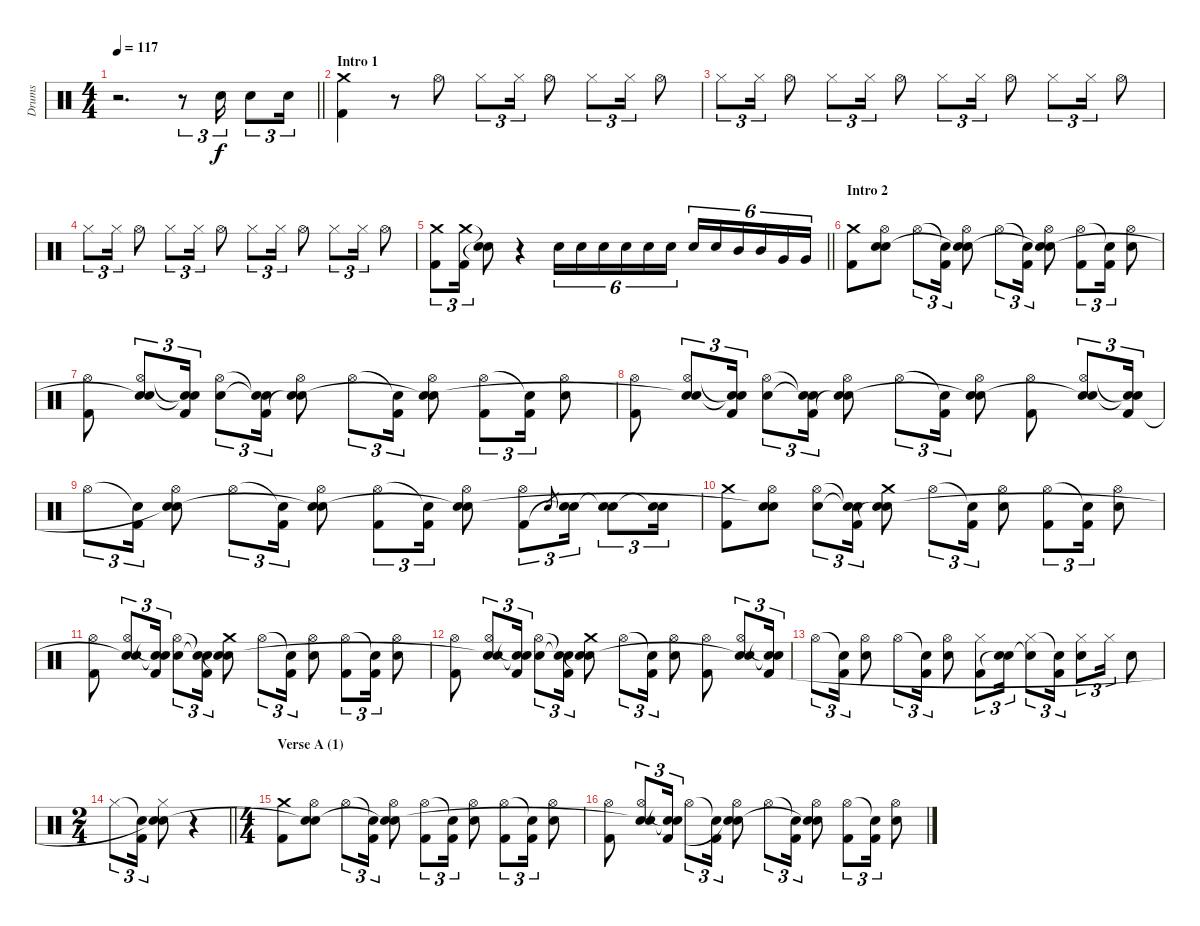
\track ("Drums" "Drums") {instrument percussion}
\staff {score}
\articulation defaults
\ts (4 4)
\tempo 117
\clef neutral
\barLineRight lightlight
\ks aminor
r.2{d dy f} r.8{tu (3 2)} "Electric Snare (hit)".16{tu (3 2)} "Electric Snare (hit)".8{tu (3 2)} "Electric Snare (hit)".16{tu (3 2)} |
\section ("" "Intro 1")
("Crash medium (hit)" "Kick (hit) 2").4 r.8 "Hi-Hat (open)".8 "Hi-Hat (closed)".8{tu (3 2)} "Hi-Hat (closed)".16{tu (3 2)} "Hi-Hat (open)".8 "Hi-Hat (closed)".8{tu (3 2)} "Hi-Hat (closed)".16{tu (3 2)} "Hi-Hat (open)".8 |
"Hi-Hat (closed)".8{tu (3 2)} "Hi-Hat (closed)".16{tu (3 2)} "Hi-Hat (open)".8 "Hi-Hat (closed)".8{tu (3 2)} "Hi-Hat (closed)".16{tu (3 2)} "Hi-Hat (open)".8 "Hi-Hat (closed)".8{tu (3 2)} "Hi-Hat (closed)".16{tu (3 2)} "Hi-Hat (open)".8 "Hi-Hat (closed)".8{tu (3 2)} "Hi-Hat (closed)".16{tu (3 2)} "Hi-Hat (open)".8 |
"Hi-Hat (closed)".8{tu (3 2)} "Hi-Hat (closed)".16{tu (3 2)} "Hi-Hat (open)".8 "Hi-Hat (closed)".8{tu (3 2)} "Hi-Hat (closed)".16{tu (3 2)} "Hi-Hat (open)".8 "Hi-Hat (closed)".8{tu (3 2)} "Hi-Hat (closed)".16{tu (3 2)} "Hi-Hat (open)".8 "Hi-Hat (closed)".8{tu (3 2)} "Hi-Hat (closed)".16{tu (3 2)} "Hi-Hat (open)".8 |
\barLineRight lightlight
("Crash medium (hit)" "Kick (hit) 2").8{tu (3 2)} ("Crash medium (hit)" "Kick (hit) 2").16{tu (3 2)} ("Snare (hit)"{t} "Snare (hit)"{t}).8 r.4 "Electric Snare (hit)".16{tu (6 4)} "Electric Snare (hit)".16{tu (6 4)} "Electric Snare (hit)".16{tu (6 4)} "Electric Snare (hit)".16{tu (6 4)} "Electric Snare (hit)".16{tu (6 4)} "Electric Snare (hit)".16{tu (6 4)} "Electric Snare (hit)".16{tu (6 4)} "Electric Snare (hit)".16{tu (6 4)} "Mid Tom (hit)".16{tu (6 4)} "Mid Tom (hit)".16{tu (6 4)} "Very Low Tom (hit)".16{tu (6 4)} "Very Low Tom (hit)".16{tu (6 4)} |
\section ("" "Intro 2")
("Crash medium (hit)" "Kick (hit) 2").8 ("Hi-Hat (open)" "Electric Snare (hit)" "Snare (hit)").8 "Hi-Hat (open)".8{tu (3 2)} ("Snare (hit)"{t} "Kick (hit) 2").16{tu (3 2)} ("Hi-Hat (open)" "Electric Snare (hit)" "Snare (hit)"{t}).8 "Hi-Hat (open)".8{tu (3 2)} ("Snare (hit)"{t} "Kick (hit) 2").16{tu (3 2)} ("Hi-Hat (open)" "Electric Snare (hit)" "Snare (hit)"{t}).8 ("Hi-Hat (open)" "Kick (hit) 2").8{tu (3 2)} ("Snare (hit)"{t} "Kick (hit) 2").16{tu (3 2)} ("Hi-Hat (open)" "Electric Snare (hit)").8 |
("Hi-Hat (open)" "Kick (hit) 2").8 ("Hi-Hat (open)" "Electric Snare (hit)" "Snare (hit)"{t}).8{tu (3 2)} ("Snare (hit)"{t} "Snare (hit)"{t} "Kick (hit) 2").16{tu (3 2)} ("Hi-Hat (open)" "Electric Snare (hit)").8{tu (3 2)} ("Snare (hit)"{t} "Snare (hit)"{t} "Kick (hit) 2").16{tu (3 2)} ("Hi-Hat (open)" "Electric Snare (hit)" "Snare (hit)"{t}).8 "Hi-Hat (open)".8{tu (3 2)} ("Snare (hit)"{t} "Kick (hit) 2").16{tu (3 2)} ("Hi-Hat (open)" "Electric Snare (hit)" "Snare (hit)"{t}).8 ("Hi-Hat (open)" "Kick (hit) 2").8{tu (3 2)} ("Snare (hit)"{t} "Kick (hit) 2").16{tu (3 2)} ("Hi-Hat (open)" "Electric Snare (hit)").8 |
("Hi-Hat (open)" "Kick (hit) 2").8 ("Hi-Hat (open)" "Electric Snare (hit)" "Snare (hit)"{t}).8{tu (3 2)} ("Snare (hit)"{t} "Snare (hit)"{t} "Kick (hit) 2").16{tu (3 2)} ("Hi-Hat (open)" "Electric Snare (hit)").8{tu (3 2)} ("Snare (hit)"{t} "Snare (hit)"{t} "Kick (hit) 2").16{tu (3 2)} ("Hi-Hat (open)" "Electric Snare (hit)" "Snare (hit)"{t}).8 "Hi-Hat (open)".8{tu (3 2)} ("Snare (hit)"{t} "Kick (hit) 2").16{tu (3 2)} ("Hi-Hat (open)" "Electric Snare (hit)" "Snare (hit)"{t}).8 ("Hi-Hat (open)" "Kick (hit) 2").8 ("Hi-Hat (open)" "Electric Snare (hit)" "Snare (hit)"{t}).8{tu (3 2)} ("Snare (hit)"{t} "Snare (hit)"{t} "Kick (hit) 2").16{tu (3 2)} |
"Hi-Hat (open)".8{tu (3 2)} ("Snare (hit)"{t} "Kick (hit) 2").16{tu (3 2)} ("Hi-Hat (open)" "Electric Snare (hit)" "Snare (hit)"{t}).8 "Hi-Hat (open)".8{tu (3 2)} ("Snare (hit)"{t} "Kick (hit) 2").16{tu (3 2)} ("Hi-Hat (open)" "Electric Snare (hit)" "Snare (hit)"{t}).8 ("Hi-Hat (open)" "Kick (hit) 2").8{tu (3 2)} ("Snare (hit)"{t} "Kick (hit) 2").16{tu (3 2)} ("Hi-Hat (open)" "Electric Snare (hit)" "Snare (hit)"{t}).8 ("Hi-Hat (open)" "Kick (hit) 2").8{tu (3 2)} "Electric Snare (hit)".8{gr} ("Electric Snare (hit)" "Snare (hit)"{t}).16{tu (3 2)} ("Electric Snare (hit)" "Snare (hit)"{t}).8{tu (3 2)} ("Electric Snare (hit)" "Snare (hit)"{t}).16{tu (3 2)} |
("Crash medium (hit)" "Kick (hit) 2").8 ("Hi-Hat (open)" "Electric Snare (hit)" "Snare (hit)"{t}).8 ("Hi-Hat (open)" "Electric Snare (hit)").8{tu (3 2)} ("Snare (hit)"{t} "Snare (hit)"{t} "Kick (hit) 2").16{tu (3 2)} ("Crash medium (hit)" "Electric Snare (hit)" "Snare (hit)"{t}).8 "Hi-Hat (open)".8{tu (3 2)} ("Snare (hit)"{t} "Kick (hit) 2").16{tu (3 2)} ("Hi-Hat (open)" "Electric Snare (hit)").8 ("Hi-Hat (open)" "Kick (hit) 2").8{tu (3 2)} ("Snare (hit)"{t} "Kick (hit) 2").16{tu (3 2)} ("Hi-Hat (open)" "Electric Snare (hit)").8 |
("Hi-Hat (open)" "Kick (hit) 2").8 ("Hi-Hat (open)" "Electric Snare (hit)" "Snare (hit)"{t}).8{tu (3 2)} ("Snare (hit)"{t} "Snare (hit)"{t} "Kick (hit) 2").16{tu (3 2)} ("Hi-Hat (open)" "Electric Snare (hit)").8{tu (3 2)} ("Snare (hit)"{t} "Snare (hit)"{t} "Kick (hit) 2").16{tu (3 2)} ("Crash medium (hit)" "Electric Snare (hit)" "Snare (hit)"{t}).8 "Hi-Hat (open)".8{tu (3 2)} ("Snare (hit)"{t} "Kick (hit) 2").16{tu (3 2)} ("Hi-Hat (open)" "Electric Snare (hit)").8 ("Hi-Hat (open)" "Kick (hit) 2").8{tu (3 2)} ("Snare (hit)"{t} "Kick (hit) 2").16{tu (3 2)} ("Hi-Hat (open)" "Electric Snare (hit)").8 |
("Hi-Hat (open)" "Kick (hit) 2").8 ("Hi-Hat (open)" "Electric Snare (hit)" "Snare (hit)"{t}).8{tu (3 2)} ("Snare (hit)"{t} "Snare (hit)"{t} "Kick (hit) 2").16{tu (3 2)} ("Hi-Hat (open)" "Electric Snare (hit)").8{tu (3 2)} ("Snare (hit)"{t} "Snare (hit)"{t} "Kick (hit) 2").16{tu (3 2)} ("Crash medium (hit)" "Electric Snare (hit)" "Snare (hit)"{t}).8 "Hi-Hat (open)".8{tu (3 2)} ("Snare (hit)"{t} "Kick (hit) 2").16{tu (3 2)} ("Hi-Hat (open)" "Electric Snare (hit)").8 ("Hi-Hat (open)" "Kick (hit) 2").8 ("Hi-Hat (open)" "Electric Snare (hit)" "Snare (hit)"{t}).8{tu (3 2)} ("Snare (hit)"{t} "Snare (hit)"{t} "Kick (hit) 2").16{tu (3 2)} |
"Hi-Hat (open)".8{tu (3 2)} ("Snare (hit)"{t} "Kick (hit) 2").16{tu (3 2)} ("Hi-Hat (open)" "Electric Snare (hit)").8 "Hi-Hat (open)".8{tu (3 2)} ("Snare (hit)"{t} "Kick (hit) 2").16{tu (3 2)} ("Hi-Hat (open)" "Electric Snare (hit)").8 ("Hi-Hat (closed)" "Kick (hit) 2").8{tu (3 2)} ("Electric Snare (hit)" "Snare (hit)"{t}).16{tu (3 2)} ("Hi-Hat (closed)" "Snare (hit)"{t}).8{tu (3 2)} ("Snare (hit)"{t} "Kick (hit) 2").16{tu (3 2)} ("Hi-Hat (closed)" "Electric Snare (hit)").8{tu (3 2)} "Hi-Hat (closed)".16{tu (3 2)} "Electric Snare (hit)".8 |
\ts (2 4)
\barLineRight lightlight "Hi-Hat (closed)".8{tu (3 2)}
("Snare (hit)"{t} "Kick (hit) 2").16{tu (3 2)} ("Hi-Hat (closed)" "Electric Snare (hit)" "Snare (hit)"{t}).8 r.4 |
\ts (4 4)
\section ("" "Verse A (1)")
("Crash medium (hit)" "Kick (hit) 2").8 ("Hi-Hat (open)" "Electric Snare (hit)" "Snare (hit)"{t}).8 "Hi-Hat (open)".8{tu (3 2)} ("Snare (hit)"{t} "Kick (hit) 2").16{tu (3 2)} ("Hi-Hat (open)" "Electric Snare (hit)" "Snare (hit)"{t}).8 ("Hi-Hat (open)" "Kick (hit) 2").8{tu (3 2)} ("Snare (hit)"{t} "Kick (hit) 2").16{tu (3 2)} ("Hi-Hat (open)" "Electric Snare (hit)").8 ("Hi-Hat (open)" "Kick (hit) 2").8{tu (3 2)} ("Snare (hit)"{t} "Kick (hit) 2").16{tu (3 2)} ("Hi-Hat (open)" "Electric Snare (hit)").8 |
("Hi-Hat (open)" "Kick (hit) 2").8 ("Hi-Hat (open)" "Electric Snare (hit)" "Snare (hit)"{t}).8{tu (3 2)} ("Snare (hit)"{t} "Snare (hit)"{t} "Kick (hit) 2").16{tu (3 2)} "Hi-Hat (open)".8{tu (3 2)} ("Snare (hit)"{t} "Kick (hit) 2").16{tu (3 2)} ("Hi-Hat (open)" "Electric Snare (hit)" "Snare (hit)"{t}).8 "Hi-Hat (open)".8{tu (3 2)} ("Snare (hit)"{t} "Kick (hit) 2").16{tu (3 2)} ("Hi-Hat (open)" "Electric Snare (hit)" "Snare (hit)"{t}).8 ("Hi-Hat (open)" "Kick (hit) 2").8{tu (3 2)} ("Snare (hit)"{t} "Kick (hit) 2").16{tu (3 2)} ("Hi-Hat (open)" "Electric Snare (hit)").8
